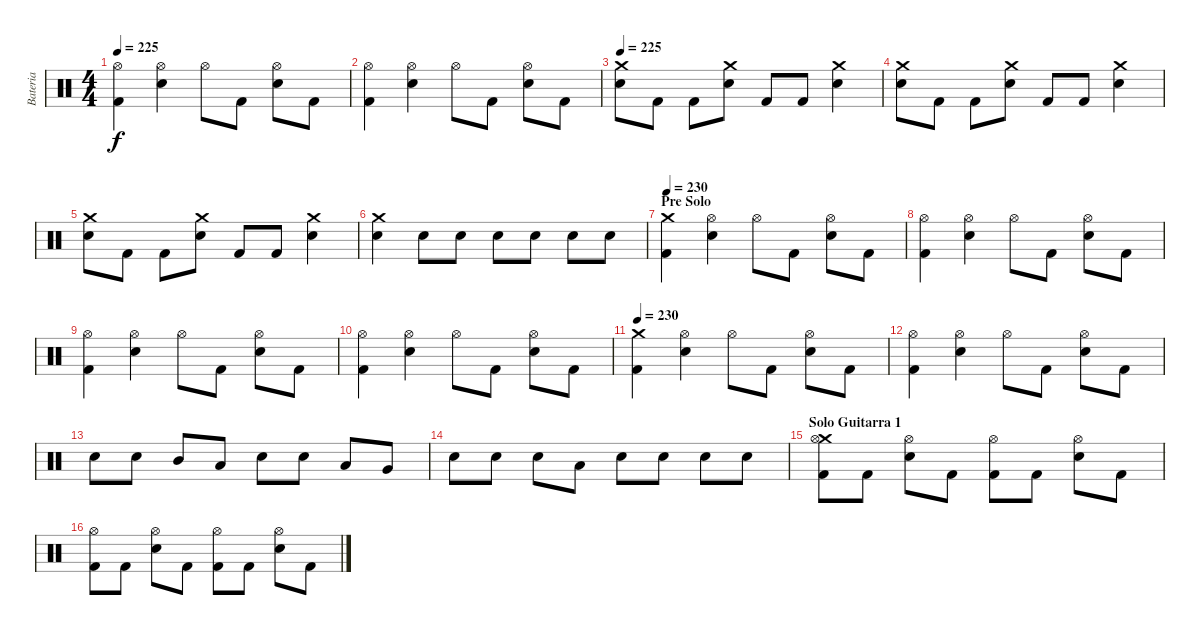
\track ("Bateria" "Bateria") {instrument percussion}
\staff {score}
\articulation defaults
\ts (4 4)
\tempo 225
\clef neutral
\ks c
("Hi-Hat (open)" "Kick (hit) 2").4{dy f} ("Snare (hit) 2" "Hi-Hat (open)").4 "Hi-Hat (open)".8 "Kick (hit) 2".8 ("Hi-Hat (open)" "Snare (hit) 2").8 "Kick (hit) 2".8 |
("Hi-Hat (open)" "Kick (hit) 2").4 ("Snare (hit) 2" "Hi-Hat (open)").4 "Hi-Hat (open)".8 "Kick (hit) 2".8 ("Hi-Hat (open)" "Snare (hit) 2").8 "Kick (hit) 2".8 |
\tempo 225
("Snare (hit) 2" "Crash medium (hit)").8 "Kick (hit) 2".8 "Kick (hit) 2".8 ("Snare (hit) 2" "Crash medium (hit)").8 "Kick (hit) 2".8 "Kick (hit) 2".8 ("Snare (hit) 2" "Crash medium (hit)").4 |
("Snare (hit) 2" "Crash medium (hit)").8 "Kick (hit) 2".8 "Kick (hit) 2".8 ("Snare (hit) 2" "Crash medium (hit)").8 "Kick (hit) 2".8 "Kick (hit) 2".8 ("Snare (hit) 2" "Crash medium (hit)").4 |
("Snare (hit) 2" "Crash medium (hit)").8 "Kick (hit) 2".8 "Kick (hit) 2".8 ("Snare (hit) 2" "Crash medium (hit)").8 "Kick (hit) 2".8 "Kick (hit) 2".8 ("Snare (hit) 2" "Crash medium (hit)").4 |
("Snare (hit) 2" "Crash medium (hit)").4 "Snare (hit) 2".8 "Snare (hit) 2".8 "Snare (hit) 2".8 "Snare (hit) 2".8 "Snare (hit) 2".8 "Snare (hit) 2".8 |
\section ("" "Pre Solo")
\tempo 230
("Crash medium (hit)" "Kick (hit) 2").4 ("Snare (hit) 2" "Hi-Hat (open)").4 "Hi-Hat (open)".8 "Kick (hit) 2".8 ("Hi-Hat (open)" "Snare (hit) 2").8 "Kick (hit) 2".8 |
("Hi-Hat (open)" "Kick (hit) 2").4 ("Snare (hit) 2" "Hi-Hat (open)").4 "Hi-Hat (open)".8 "Kick (hit) 2".8 ("Hi-Hat (open)" "Snare (hit) 2").8 "Kick (hit) 2".8 |
("Hi-Hat (open)" "Kick (hit) 2").4 ("Snare (hit) 2" "Hi-Hat (open)").4 "Hi-Hat (open)".8 "Kick (hit) 2".8 ("Hi-Hat (open)" "Snare (hit) 2").8 "Kick (hit) 2".8 |
("Hi-Hat (open)" "Kick (hit) 2").4 ("Snare (hit) 2" "Hi-Hat (open)").4 "Hi-Hat (open)".8 "Kick (hit) 2".8 ("Hi-Hat (open)" "Snare (hit) 2").8 "Kick (hit) 2".8 |
\tempo 230
("Crash medium (hit)" "Kick (hit) 2").4 ("Snare (hit) 2" "Hi-Hat (open)").4 "Hi-Hat (open)".8 "Kick (hit) 2".8 ("Hi-Hat (open)" "Snare (hit) 2").8 "Kick (hit) 2".8 |
("Hi-Hat (open)" "Kick (hit) 2").4 ("Snare (hit) 2" "Hi-Hat (open)").4 "Hi-Hat (open)".8 "Kick (hit) 2".8 ("Hi-Hat (open)" "Snare (hit) 2").8 "Kick (hit) 2".8 |
"Snare (hit) 2".8 "Snare (hit) 2".8 "Mid Tom (hit)".8 "Low Tom (hit)".8 "Snare (hit) 2".8 "Snare (hit) 2".8 "Low Tom (hit)".8 "Very Low Tom (hit)".8 |
"Snare (hit) 2".8 "Snare (hit) 2".8 "Snare (hit) 2".8 "Low Tom (hit)".8 "Snare (hit) 2".8 "Snare (hit) 2".8 "Snare (hit) 2".8 "Snare (hit) 2".8 |
\section ("" "Solo Guitarra 1")
("Crash medium (hit)" "Hi-Hat (open)" "Kick (hit) 2").8 "Kick (hit) 2".8 ("Hi-Hat (open)" "Snare (hit) 2").8 "Kick (hit) 2".8 ("Hi-Hat (open)" "Kick (hit) 2").8 "Kick (hit) 2".8 ("Hi-Hat (open)" "Snare (hit) 2").8 "Kick (hit) 2".8 |
("Hi-Hat (open)" "Kick (hit) 2").8 "Kick (hit) 2".8 ("Hi-Hat (open)" "Snare (hit) 2").8 "Kick (hit) 2".8 ("Hi-Hat (open)" "Kick (hit) 2").8 "Kick (hit) 2".8 ("Hi-Hat (open)" "Snare (hit) 2").8 "Kick (hit) 2".8
